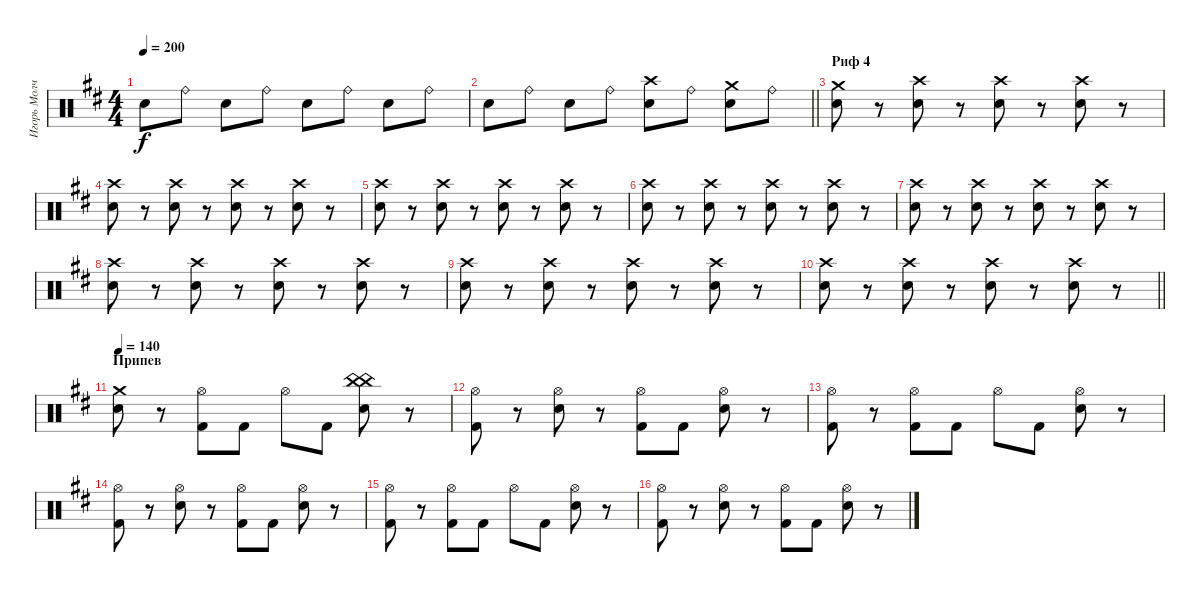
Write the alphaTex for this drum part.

\track ("Игорь Молчанов" "Игорь Молч") {instrument percussion}
\staff {score}
\articulation defaults
\ts (4 4)
\tempo 200
\clef neutral
\ks d "Snare (hit) 2".8{dy f} "Ride (bell)".8 "Snare (hit) 2".8 "Ride (bell)".8 "Snare (hit) 2".8 "Ride (bell)".8 "Snare (hit) 2".8 "Ride (bell)".8
|
\barLineRight lightlight "Snare (hit) 2".8 "Ride (bell)".8 "Snare (hit) 2".8 "Ride (bell)".8
("Crash high (hit)" "Snare (hit) 2").8 "Ride (bell)".8 ("Crash medium (hit)" "Snare (hit) 2").8 "Ride (bell)".8 |
\section ("" "Риф 4")
("Crash medium (hit)" "Snare (hit) 2").8 r.8 ("Crash high (hit)" "Snare (hit) 2").8 r.8 ("Crash high (hit)" "Snare (hit) 2").8 r.8 ("Crash high (hit)" "Snare (hit) 2").8 r.8 |
("Crash high (hit)" "Snare (hit) 2").8 r.8 ("Crash high (hit)" "Snare (hit) 2").8 r.8 ("Crash high (hit)" "Snare (hit) 2").8 r.8 ("Crash high (hit)" "Snare (hit) 2").8 r.8 |
("Crash high (hit)" "Snare (hit) 2").8 r.8 ("Crash high (hit)" "Snare (hit) 2").8 r.8 ("Crash high (hit)" "Snare (hit) 2").8 r.8 ("Crash high (hit)" "Snare (hit) 2").8 r.8 |
("Crash high (hit)" "Snare (hit) 2").8 r.8 ("Crash high (hit)" "Snare (hit) 2").8 r.8 ("Crash high (hit)" "Snare (hit) 2").8 r.8 ("Crash high (hit)" "Snare (hit) 2").8 r.8 |
("Crash high (hit)" "Snare (hit) 2").8 r.8 ("Crash high (hit)" "Snare (hit) 2").8 r.8 ("Crash high (hit)" "Snare (hit) 2").8 r.8 ("Crash high (hit)" "Snare (hit) 2").8 r.8 |
("Crash high (hit)" "Snare (hit) 2").8 r.8 ("Crash high (hit)" "Snare (hit) 2").8 r.8 ("Crash high (hit)" "Snare (hit) 2").8 r.8 ("Crash high (hit)" "Snare (hit) 2").8 r.8 |
("Crash high (hit)" "Snare (hit) 2").8 r.8 ("Crash high (hit)" "Snare (hit) 2").8 r.8 ("Crash high (hit)" "Snare (hit) 2").8 r.8 ("Crash high (hit)" "Snare (hit) 2").8 r.8 |
\barLineRight lightlight
("Crash high (hit)" "Snare (hit) 2").8 r.8 ("Crash high (hit)" "Snare (hit) 2").8 r.8 ("Crash high (hit)" "Snare (hit) 2").8 r.8 ("Crash high (hit)" "Snare (hit) 2").8 r.8 |
\section ("" "Припев")
\tempo 140
("Crash medium (hit)" "Snare (hit) 2").8 r.8 ("Hi-Hat (open)" "Kick (hit) 2").8 "Kick (hit) 2".8 "Hi-Hat (open)".8 "Kick (hit) 2".8 ("China (hit)" "China (hit)" "Snare (hit) 2").8 r.8 |
("Hi-Hat (open)" "Kick (hit) 2").8 r.8 ("Hi-Hat (open)" "Snare (hit) 2").8 r.8 ("Hi-Hat (open)" "Kick (hit) 2").8 "Kick (hit) 2".8 ("Hi-Hat (open)" "Snare (hit) 2").8 r.8 |
("Hi-Hat (open)" "Kick (hit) 2").8 r.8 ("Hi-Hat (open)" "Kick (hit) 2").8 "Kick (hit) 2".8 "Hi-Hat (open)".8 "Kick (hit) 2".8 ("Hi-Hat (open)" "Snare (hit) 2").8 r.8 |
("Hi-Hat (open)" "Kick (hit) 2").8 r.8 ("Hi-Hat (open)" "Snare (hit) 2").8 r.8 ("Hi-Hat (open)" "Kick (hit) 2").8 "Kick (hit) 2".8 ("Hi-Hat (open)" "Snare (hit) 2").8 r.8 |
("Hi-Hat (open)" "Kick (hit) 2").8 r.8 ("Hi-Hat (open)" "Kick (hit) 2").8 "Kick (hit) 2".8 "Hi-Hat (open)".8 "Kick (hit) 2".8 ("Hi-Hat (open)" "Snare (hit) 2").8 r.8 |
("Hi-Hat (open)" "Kick (hit) 2").8 r.8 ("Hi-Hat (open)" "Snare (hit) 2").8 r.8 ("Hi-Hat (open)" "Kick (hit) 2").8 "Kick (hit) 2".8 ("Hi-Hat (open)" "Snare (hit) 2").8 r.8
